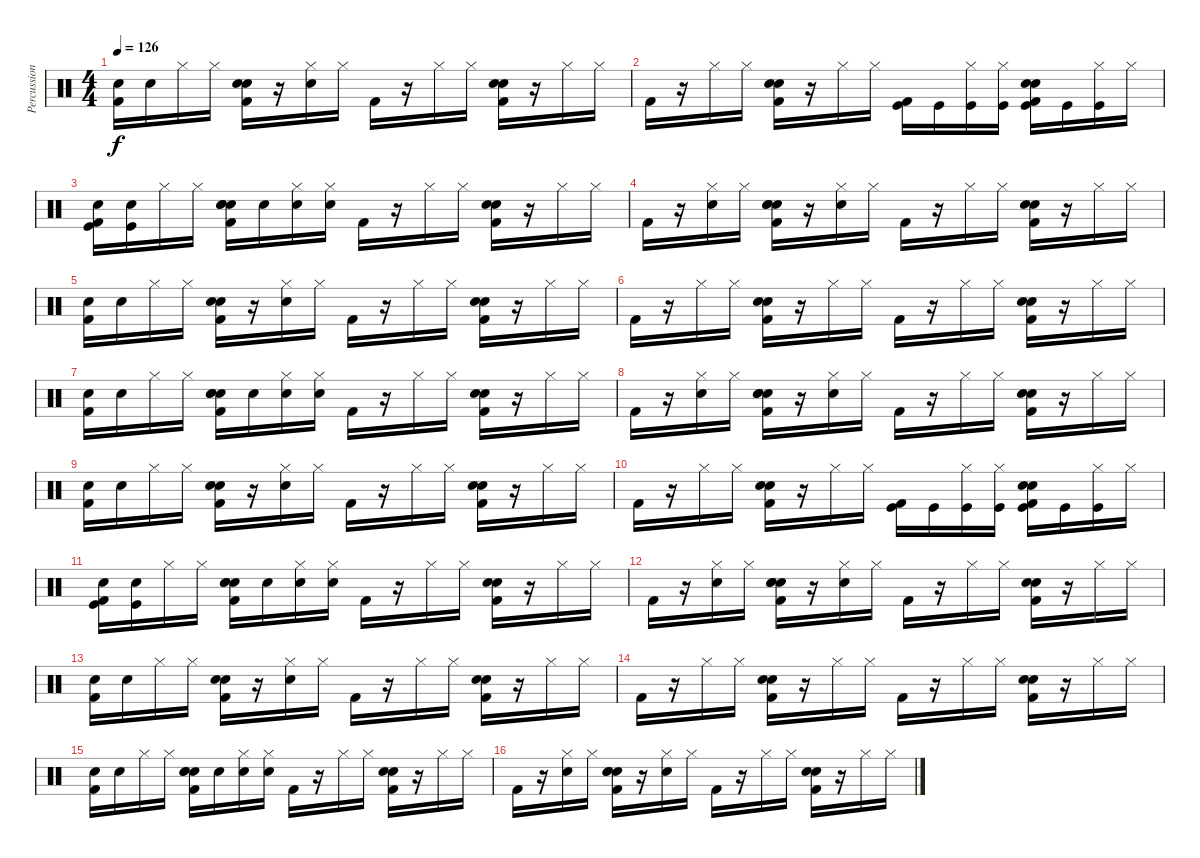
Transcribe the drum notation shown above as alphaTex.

\track ("Percussion" "Percussion") {instrument percussion}
\staff {score}
\articulation defaults
\ts (4 4)
\tempo 126
\clef neutral
\ks c
("Snare (hit) 2" "Kick (hit) 2").16{dy f} "Snare (hit) 2".16 "Hi-Hat (closed)".16 "Hi-Hat (closed)".16 ("Hand Clap (hit)" "Electric Snare (hit)" "Kick (hit) 2").16 r.16 ("Hi-Hat (closed)" "Snare (hit) 2").16 "Hi-Hat (closed)".16 "Kick (hit) 2".16 r.16 "Hi-Hat (closed)".16 "Hi-Hat (closed)".16 ("Hand Clap (hit)" "Electric Snare (hit)" "Kick (hit) 2").16 r.16 "Hi-Hat (closed)".16 "Hi-Hat (closed)".16 |
"Kick (hit) 2".16 r.16 "Hi-Hat (closed)".16 "Hi-Hat (closed)".16 ("Hand Clap (hit)" "Electric Snare (hit)" "Kick (hit) 2").16 r.16 "Hi-Hat (closed)".16 "Hi-Hat (closed)".16 ("Kick (hit)" "Kick (hit) 2").16 "Kick (hit)".16 ("Hi-Hat (closed)" "Kick (hit)").16 ("Hi-Hat (closed)" "Kick (hit)").16 ("Kick (hit)" "Hand Clap (hit)" "Electric Snare (hit)" "Kick (hit) 2").16 "Kick (hit)".16 ("Hi-Hat (closed)" "Kick (hit)").16 "Hi-Hat (closed)".16 |
("Kick (hit)" "Snare (hit) 2" "Kick (hit) 2").16 ("Kick (hit)" "Snare (hit) 2").16 "Hi-Hat (closed)".16 "Hi-Hat (closed)".16 ("Snare (hit) 2" "Hand Clap (hit)" "Electric Snare (hit)" "Kick (hit) 2").16 "Snare (hit) 2".16 ("Hi-Hat (closed)" "Snare (hit) 2").16 ("Hi-Hat (closed)" "Snare (hit) 2").16 "Kick (hit) 2".16 r.16 "Hi-Hat (closed)".16 "Hi-Hat (closed)".16 ("Hand Clap (hit)" "Electric Snare (hit)" "Kick (hit) 2").16 r.16 "Hi-Hat (closed)".16 "Hi-Hat (closed)".16 |
"Kick (hit) 2".16 r.16 ("Hi-Hat (closed)" "Snare (hit) 2").16 "Hi-Hat (closed)".16 ("Snare (hit) 2" "Hand Clap (hit)" "Electric Snare (hit)" "Kick (hit) 2").16 r.16 ("Hi-Hat (closed)" "Snare (hit) 2").16 "Hi-Hat (closed)".16 "Kick (hit) 2".16 r.16 "Hi-Hat (closed)".16 "Hi-Hat (closed)".16 ("Hand Clap (hit)" "Electric Snare (hit)" "Kick (hit) 2").16 r.16 "Hi-Hat (closed)".16 "Hi-Hat (closed)".16 |
("Snare (hit) 2" "Kick (hit) 2").16 "Snare (hit) 2".16 "Hi-Hat (closed)".16 "Hi-Hat (closed)".16 ("Hand Clap (hit)" "Electric Snare (hit)" "Kick (hit) 2").16 r.16 ("Hi-Hat (closed)" "Snare (hit) 2").16 "Hi-Hat (closed)".16 "Kick (hit) 2".16 r.16 "Hi-Hat (closed)".16 "Hi-Hat (closed)".16 ("Hand Clap (hit)" "Electric Snare (hit)" "Kick (hit) 2").16 r.16 "Hi-Hat (closed)".16 "Hi-Hat (closed)".16 |
"Kick (hit) 2".16 r.16 "Hi-Hat (closed)".16 "Hi-Hat (closed)".16 ("Hand Clap (hit)" "Electric Snare (hit)" "Kick (hit) 2").16 r.16 "Hi-Hat (closed)".16 "Hi-Hat (closed)".16 "Kick (hit) 2".16 r.16 "Hi-Hat (closed)".16 "Hi-Hat (closed)".16 ("Hand Clap (hit)" "Electric Snare (hit)" "Kick (hit) 2").16 r.16 "Hi-Hat (closed)".16 "Hi-Hat (closed)".16 |
("Snare (hit) 2" "Kick (hit) 2").16 "Snare (hit) 2".16 "Hi-Hat (closed)".16 "Hi-Hat (closed)".16 ("Snare (hit) 2" "Hand Clap (hit)" "Electric Snare (hit)" "Kick (hit) 2").16 "Snare (hit) 2".16 ("Hi-Hat (closed)" "Snare (hit) 2").16 ("Hi-Hat (closed)" "Snare (hit) 2").16 "Kick (hit) 2".16 r.16 "Hi-Hat (closed)".16 "Hi-Hat (closed)".16 ("Hand Clap (hit)" "Electric Snare (hit)" "Kick (hit) 2").16 r.16 "Hi-Hat (closed)".16 "Hi-Hat (closed)".16 |
"Kick (hit) 2".16 r.16 ("Hi-Hat (closed)" "Snare (hit) 2").16 "Hi-Hat (closed)".16 ("Snare (hit) 2" "Hand Clap (hit)" "Electric Snare (hit)" "Kick (hit) 2").16 r.16 ("Hi-Hat (closed)" "Snare (hit) 2").16 "Hi-Hat (closed)".16 "Kick (hit) 2".16 r.16 "Hi-Hat (closed)".16 "Hi-Hat (closed)".16 ("Hand Clap (hit)" "Electric Snare (hit)" "Kick (hit) 2").16 r.16 "Hi-Hat (closed)".16 "Hi-Hat (closed)".16 |
("Snare (hit) 2" "Kick (hit) 2").16 "Snare (hit) 2".16 "Hi-Hat (closed)".16 "Hi-Hat (closed)".16 ("Hand Clap (hit)" "Electric Snare (hit)" "Kick (hit) 2").16 r.16 ("Hi-Hat (closed)" "Snare (hit) 2").16 "Hi-Hat (closed)".16 "Kick (hit) 2".16 r.16 "Hi-Hat (closed)".16 "Hi-Hat (closed)".16 ("Hand Clap (hit)" "Electric Snare (hit)" "Kick (hit) 2").16 r.16 "Hi-Hat (closed)".16 "Hi-Hat (closed)".16 |
"Kick (hit) 2".16 r.16 "Hi-Hat (closed)".16 "Hi-Hat (closed)".16 ("Hand Clap (hit)" "Electric Snare (hit)" "Kick (hit) 2").16 r.16 "Hi-Hat (closed)".16 "Hi-Hat (closed)".16 ("Kick (hit)" "Kick (hit) 2").16 "Kick (hit)".16 ("Hi-Hat (closed)" "Kick (hit)").16 ("Hi-Hat (closed)" "Kick (hit)").16 ("Kick (hit)" "Hand Clap (hit)" "Electric Snare (hit)" "Kick (hit) 2").16 "Kick (hit)".16 ("Hi-Hat (closed)" "Kick (hit)").16 "Hi-Hat (closed)".16 |
("Kick (hit)" "Snare (hit) 2" "Kick (hit) 2").16 ("Kick (hit)" "Snare (hit) 2").16 "Hi-Hat (closed)".16 "Hi-Hat (closed)".16 ("Snare (hit) 2" "Hand Clap (hit)" "Electric Snare (hit)" "Kick (hit) 2").16 "Snare (hit) 2".16 ("Hi-Hat (closed)" "Snare (hit) 2").16 ("Hi-Hat (closed)" "Snare (hit) 2").16 "Kick (hit) 2".16 r.16 "Hi-Hat (closed)".16 "Hi-Hat (closed)".16 ("Hand Clap (hit)" "Electric Snare (hit)" "Kick (hit) 2").16 r.16 "Hi-Hat (closed)".16 "Hi-Hat (closed)".16 |
"Kick (hit) 2".16 r.16 ("Hi-Hat (closed)" "Snare (hit) 2").16 "Hi-Hat (closed)".16 ("Snare (hit) 2" "Hand Clap (hit)" "Electric Snare (hit)" "Kick (hit) 2").16 r.16 ("Hi-Hat (closed)" "Snare (hit) 2").16 "Hi-Hat (closed)".16 "Kick (hit) 2".16 r.16 "Hi-Hat (closed)".16 "Hi-Hat (closed)".16 ("Hand Clap (hit)" "Electric Snare (hit)" "Kick (hit) 2").16 r.16 "Hi-Hat (closed)".16 "Hi-Hat (closed)".16 |
("Snare (hit) 2" "Kick (hit) 2").16 "Snare (hit) 2".16 "Hi-Hat (closed)".16 "Hi-Hat (closed)".16 ("Hand Clap (hit)" "Electric Snare (hit)" "Kick (hit) 2").16 r.16 ("Hi-Hat (closed)" "Snare (hit) 2").16 "Hi-Hat (closed)".16 "Kick (hit) 2".16 r.16 "Hi-Hat (closed)".16 "Hi-Hat (closed)".16 ("Hand Clap (hit)" "Electric Snare (hit)" "Kick (hit) 2").16 r.16 "Hi-Hat (closed)".16 "Hi-Hat (closed)".16 |
"Kick (hit) 2".16 r.16 "Hi-Hat (closed)".16 "Hi-Hat (closed)".16 ("Hand Clap (hit)" "Electric Snare (hit)" "Kick (hit) 2").16 r.16 "Hi-Hat (closed)".16 "Hi-Hat (closed)".16 "Kick (hit) 2".16 r.16 "Hi-Hat (closed)".16 "Hi-Hat (closed)".16 ("Hand Clap (hit)" "Electric Snare (hit)" "Kick (hit) 2").16 r.16 "Hi-Hat (closed)".16 "Hi-Hat (closed)".16 |
("Snare (hit) 2" "Kick (hit) 2").16 "Snare (hit) 2".16 "Hi-Hat (closed)".16 "Hi-Hat (closed)".16 ("Snare (hit) 2" "Hand Clap (hit)" "Electric Snare (hit)" "Kick (hit) 2").16 "Snare (hit) 2".16 ("Hi-Hat (closed)" "Snare (hit) 2").16 ("Hi-Hat (closed)" "Snare (hit) 2").16 "Kick (hit) 2".16 r.16 "Hi-Hat (closed)".16 "Hi-Hat (closed)".16 ("Hand Clap (hit)" "Electric Snare (hit)" "Kick (hit) 2").16 r.16 "Hi-Hat (closed)".16 "Hi-Hat (closed)".16 |
"Kick (hit) 2".16 r.16 ("Hi-Hat (closed)" "Snare (hit) 2").16 "Hi-Hat (closed)".16 ("Snare (hit) 2" "Hand Clap (hit)" "Electric Snare (hit)" "Kick (hit) 2").16 r.16 ("Hi-Hat (closed)" "Snare (hit) 2").16 "Hi-Hat (closed)".16 "Kick (hit) 2".16 r.16 "Hi-Hat (closed)".16 "Hi-Hat (closed)".16 ("Hand Clap (hit)" "Electric Snare (hit)" "Kick (hit) 2").16 r.16 "Hi-Hat (closed)".16 "Hi-Hat (closed)".16
